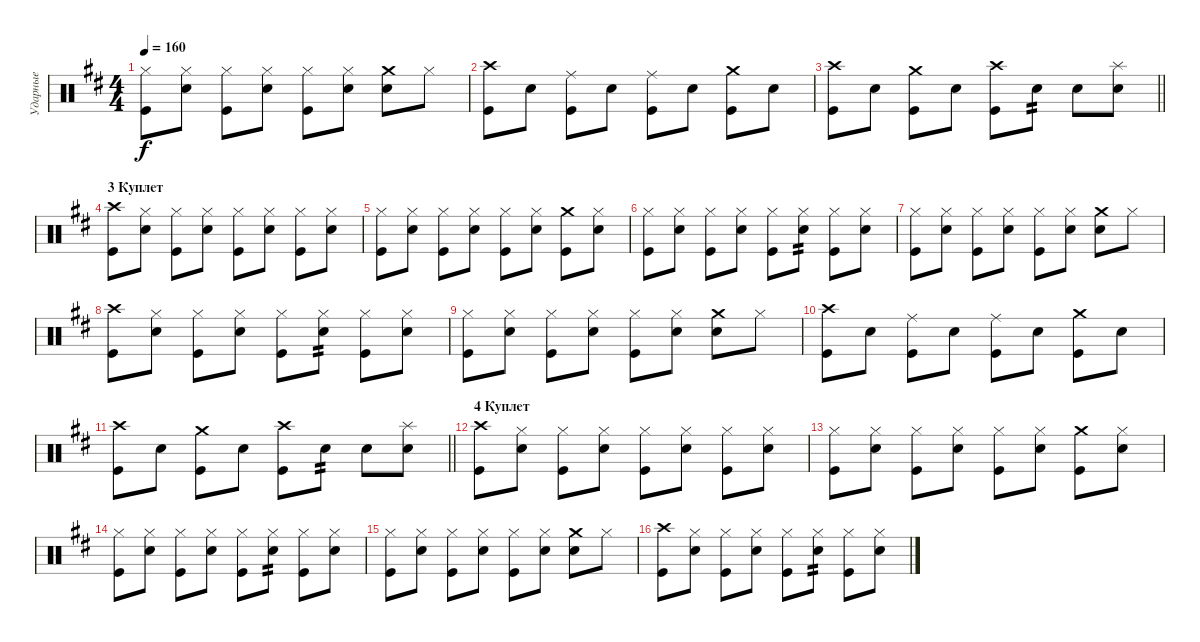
\track ("Ударные" "Ударные") {instrument percussion}
\staff {score}
\articulation defaults
\ts (4 4)
\tempo 160
\clef neutral
\ks d
("Hi-Hat (closed)" "Kick (hit)").8{dy f} ("Hi-Hat (closed)" "Electric Snare (hit)").8 ("Hi-Hat (closed)" "Kick (hit)").8 ("Hi-Hat (closed)" "Electric Snare (hit)").8 ("Hi-Hat (closed)" "Kick (hit)").8 ("Hi-Hat (closed)" "Electric Snare (hit)").8 ("Crash medium (hit)" "Electric Snare (hit)").8 "Hi-Hat (closed)".8 |
("Crash high (hit)" "Kick (hit)").8 "Electric Snare (hit)".8 ("Ride (middle)" "Kick (hit)").8 "Electric Snare (hit)".8 ("Ride (middle)" "Kick (hit)").8 "Electric Snare (hit)".8 ("Crash medium (hit)" "Kick (hit)").8 "Electric Snare (hit)".8 |
\barLineRight lightlight
("Crash high (hit)" "Kick (hit)").8 "Electric Snare (hit)".8 ("Crash medium (hit)" "Kick (hit)").8 "Electric Snare (hit)".8 ("Crash high (hit)" "Kick (hit)").8 "Electric Snare (hit)".8{tp 2} "Electric Snare (hit)".8 ("Splash (hit)" "Electric Snare (hit)").8 |
\section ("" "3 Куплет")
("Crash high (hit)" "Kick (hit)").8 ("Hi-Hat (closed)" "Electric Snare (hit)").8 ("Hi-Hat (closed)" "Kick (hit)").8 ("Hi-Hat (closed)" "Electric Snare (hit)").8 ("Hi-Hat (closed)" "Kick (hit)").8 ("Hi-Hat (closed)" "Electric Snare (hit)").8 ("Hi-Hat (closed)" "Kick (hit)").8 ("Hi-Hat (closed)" "Electric Snare (hit)").8 |
("Hi-Hat (closed)" "Kick (hit)").8 ("Hi-Hat (closed)" "Electric Snare (hit)").8 ("Hi-Hat (closed)" "Kick (hit)").8 ("Hi-Hat (closed)" "Electric Snare (hit)").8 ("Hi-Hat (closed)" "Kick (hit)").8 ("Hi-Hat (closed)" "Electric Snare (hit)").8 ("Crash medium (hit)" "Kick (hit)").8 ("Hi-Hat (closed)" "Electric Snare (hit)").8 |
("Hi-Hat (closed)" "Kick (hit)").8 ("Hi-Hat (closed)" "Electric Snare (hit)").8 ("Hi-Hat (closed)" "Kick (hit)").8 ("Hi-Hat (closed)" "Electric Snare (hit)").8 ("Hi-Hat (closed)" "Kick (hit)").8 ("Hi-Hat (closed)" "Electric Snare (hit)").8{tp 2} ("Hi-Hat (closed)" "Kick (hit)").8 ("Hi-Hat (closed)" "Electric Snare (hit)").8 |
("Hi-Hat (closed)" "Kick (hit)").8 ("Hi-Hat (closed)" "Electric Snare (hit)").8 ("Hi-Hat (closed)" "Kick (hit)").8 ("Hi-Hat (closed)" "Electric Snare (hit)").8 ("Hi-Hat (closed)" "Kick (hit)").8 ("Hi-Hat (closed)" "Electric Snare (hit)").8 ("Crash medium (hit)" "Electric Snare (hit)").8 "Hi-Hat (closed)".8 |
("Crash high (hit)" "Kick (hit)").8 ("Hi-Hat (closed)" "Electric Snare (hit)").8 ("Hi-Hat (closed)" "Kick (hit)").8 ("Hi-Hat (closed)" "Electric Snare (hit)").8 ("Hi-Hat (closed)" "Kick (hit)").8 ("Hi-Hat (closed)" "Electric Snare (hit)").8{tp 2} ("Hi-Hat (closed)" "Kick (hit)").8 ("Hi-Hat (closed)" "Electric Snare (hit)").8 |
("Hi-Hat (closed)" "Kick (hit)").8 ("Hi-Hat (closed)" "Electric Snare (hit)").8 ("Hi-Hat (closed)" "Kick (hit)").8 ("Hi-Hat (closed)" "Electric Snare (hit)").8 ("Hi-Hat (closed)" "Kick (hit)").8 ("Hi-Hat (closed)" "Electric Snare (hit)").8 ("Crash medium (hit)" "Electric Snare (hit)").8 "Hi-Hat (closed)".8 |
("Crash high (hit)" "Kick (hit)").8 "Electric Snare (hit)".8 ("Ride (middle)" "Kick (hit)").8 "Electric Snare (hit)".8 ("Ride (middle)" "Kick (hit)").8 "Electric Snare (hit)".8 ("Crash medium (hit)" "Kick (hit)").8 "Electric Snare (hit)".8 |
\barLineRight lightlight
("Crash high (hit)" "Kick (hit)").8 "Electric Snare (hit)".8 ("Crash medium (hit)" "Kick (hit)").8 "Electric Snare (hit)".8 ("Crash high (hit)" "Kick (hit)").8 "Electric Snare (hit)".8{tp 2} "Electric Snare (hit)".8 ("Splash (hit)" "Electric Snare (hit)").8 |
\section ("" "4 Куплет")
("Crash high (hit)" "Kick (hit)").8 ("Hi-Hat (closed)" "Electric Snare (hit)").8 ("Hi-Hat (closed)" "Kick (hit)").8 ("Hi-Hat (closed)" "Electric Snare (hit)").8 ("Hi-Hat (closed)" "Kick (hit)").8 ("Hi-Hat (closed)" "Electric Snare (hit)").8 ("Hi-Hat (closed)" "Kick (hit)").8 ("Hi-Hat (closed)" "Electric Snare (hit)").8 |
("Hi-Hat (closed)" "Kick (hit)").8 ("Hi-Hat (closed)" "Electric Snare (hit)").8 ("Hi-Hat (closed)" "Kick (hit)").8 ("Hi-Hat (closed)" "Electric Snare (hit)").8 ("Hi-Hat (closed)" "Kick (hit)").8 ("Hi-Hat (closed)" "Electric Snare (hit)").8 ("Crash medium (hit)" "Kick (hit)").8 ("Hi-Hat (closed)" "Electric Snare (hit)").8 |
("Hi-Hat (closed)" "Kick (hit)").8 ("Hi-Hat (closed)" "Electric Snare (hit)").8 ("Hi-Hat (closed)" "Kick (hit)").8 ("Hi-Hat (closed)" "Electric Snare (hit)").8 ("Hi-Hat (closed)" "Kick (hit)").8 ("Hi-Hat (closed)" "Electric Snare (hit)").8{tp 2} ("Hi-Hat (closed)" "Kick (hit)").8 ("Hi-Hat (closed)" "Electric Snare (hit)").8 |
("Hi-Hat (closed)" "Kick (hit)").8 ("Hi-Hat (closed)" "Electric Snare (hit)").8 ("Hi-Hat (closed)" "Kick (hit)").8 ("Hi-Hat (closed)" "Electric Snare (hit)").8 ("Hi-Hat (closed)" "Kick (hit)").8 ("Hi-Hat (closed)" "Electric Snare (hit)").8 ("Crash medium (hit)" "Electric Snare (hit)").8 "Hi-Hat (closed)".8 |
("Crash high (hit)" "Kick (hit)").8 ("Hi-Hat (closed)" "Electric Snare (hit)").8 ("Hi-Hat (closed)" "Kick (hit)").8 ("Hi-Hat (closed)" "Electric Snare (hit)").8 ("Hi-Hat (closed)" "Kick (hit)").8 ("Hi-Hat (closed)" "Electric Snare (hit)").8{tp 2} ("Hi-Hat (closed)" "Kick (hit)").8 ("Hi-Hat (closed)" "Electric Snare (hit)").8
